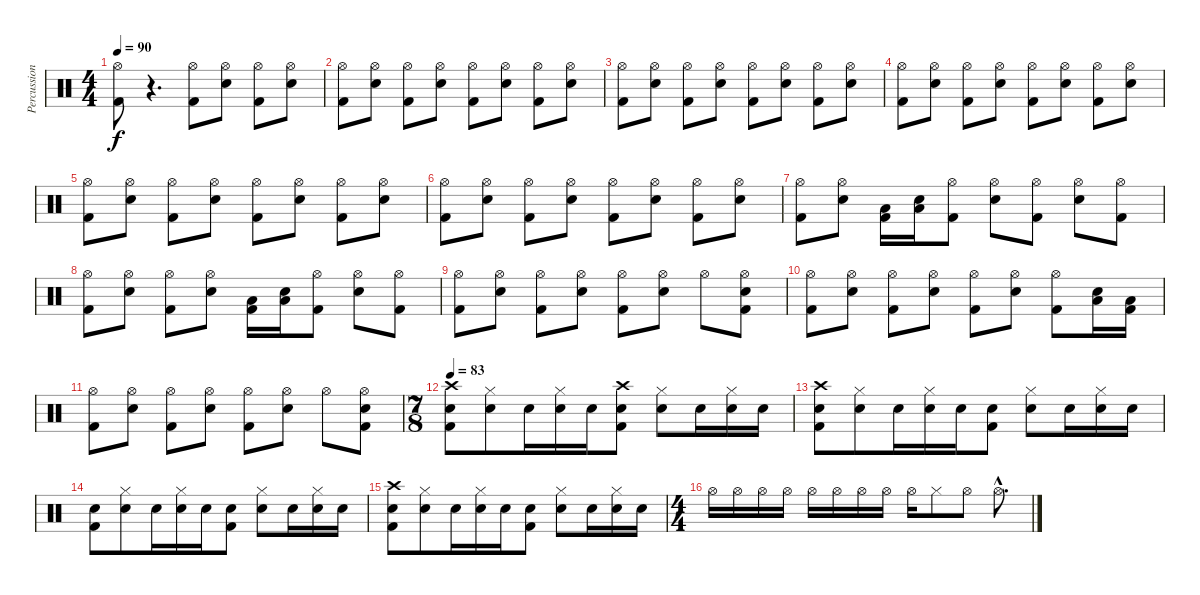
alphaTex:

\track ("Percussion" "Percussion") {instrument percussion}
\staff {score}
\articulation defaults
\ts (4 4)
\tempo 90
\clef neutral
\ks c
("Hi-Hat (open)" "Kick (hit) 2").8{dy f} r.4{d} ("Hi-Hat (open)" "Kick (hit) 2").8 ("Hi-Hat (open)" "Electric Snare (hit)").8 ("Hi-Hat (open)" "Kick (hit) 2").8 ("Hi-Hat (open)" "Electric Snare (hit)").8 |
("Hi-Hat (open)" "Kick (hit) 2").8 ("Hi-Hat (open)" "Electric Snare (hit)").8 ("Hi-Hat (open)" "Kick (hit) 2").8 ("Hi-Hat (open)" "Electric Snare (hit)").8 ("Hi-Hat (open)" "Kick (hit) 2").8 ("Hi-Hat (open)" "Electric Snare (hit)").8 ("Hi-Hat (open)" "Kick (hit) 2").8 ("Hi-Hat (open)" "Electric Snare (hit)").8 |
("Hi-Hat (open)" "Kick (hit) 2").8 ("Hi-Hat (open)" "Electric Snare (hit)").8 ("Hi-Hat (open)" "Kick (hit) 2").8 ("Hi-Hat (open)" "Electric Snare (hit)").8 ("Hi-Hat (open)" "Kick (hit) 2").8 ("Hi-Hat (open)" "Electric Snare (hit)").8 ("Hi-Hat (open)" "Kick (hit) 2").8 ("Hi-Hat (open)" "Electric Snare (hit)").8 |
("Hi-Hat (open)" "Kick (hit) 2").8 ("Hi-Hat (open)" "Electric Snare (hit)").8 ("Hi-Hat (open)" "Kick (hit) 2").8 ("Hi-Hat (open)" "Electric Snare (hit)").8 ("Hi-Hat (open)" "Kick (hit) 2").8 ("Hi-Hat (open)" "Electric Snare (hit)").8 ("Hi-Hat (open)" "Kick (hit) 2").8 ("Hi-Hat (open)" "Electric Snare (hit)").8 |
("Hi-Hat (open)" "Kick (hit) 2").8 ("Hi-Hat (open)" "Electric Snare (hit)").8 ("Hi-Hat (open)" "Kick (hit) 2").8 ("Hi-Hat (open)" "Electric Snare (hit)").8 ("Hi-Hat (open)" "Kick (hit) 2").8 ("Hi-Hat (open)" "Electric Snare (hit)").8 ("Hi-Hat (open)" "Kick (hit) 2").8 ("Hi-Hat (open)" "Electric Snare (hit)").8 |
("Hi-Hat (open)" "Kick (hit) 2").8 ("Hi-Hat (open)" "Electric Snare (hit)").8 ("Hi-Hat (open)" "Kick (hit) 2").8 ("Hi-Hat (open)" "Electric Snare (hit)").8 ("Hi-Hat (open)" "Kick (hit) 2").8 ("Hi-Hat (open)" "Electric Snare (hit)").8 ("Hi-Hat (open)" "Kick (hit) 2").8 ("Hi-Hat (open)" "Electric Snare (hit)").8 |
("Hi-Hat (open)" "Kick (hit) 2").8 ("Hi-Hat (open)" "Electric Snare (hit)").8 ("Low Floor Tom (hit)" "Kick (hit) 2").16 ("Electric Snare (hit)" "Low Floor Tom (hit)").16 ("Hi-Hat (open)" "Kick (hit) 2").8 ("Hi-Hat (open)" "Electric Snare (hit)").8 ("Hi-Hat (open)" "Kick (hit) 2").8 ("Hi-Hat (open)" "Electric Snare (hit)").8 ("Hi-Hat (open)" "Kick (hit) 2").8 |
("Hi-Hat (open)" "Kick (hit) 2").8 ("Hi-Hat (open)" "Electric Snare (hit)").8 ("Hi-Hat (open)" "Kick (hit) 2").8 ("Hi-Hat (open)" "Electric Snare (hit)").8 ("Low Floor Tom (hit)" "Kick (hit) 2").16 ("Electric Snare (hit)" "Low Floor Tom (hit)").16 ("Hi-Hat (open)" "Kick (hit) 2").8 ("Hi-Hat (open)" "Electric Snare (hit)").8 ("Hi-Hat (open)" "Kick (hit) 2").8 |
("Hi-Hat (open)" "Kick (hit) 2").8 ("Hi-Hat (open)" "Electric Snare (hit)").8 ("Hi-Hat (open)" "Kick (hit) 2").8 ("Hi-Hat (open)" "Electric Snare (hit)").8 ("Hi-Hat (open)" "Kick (hit) 2").8 ("Hi-Hat (open)" "Electric Snare (hit)").8 "Hi-Hat (open)".8 ("Hi-Hat (open)" "Electric Snare (hit)" "Kick (hit) 2").8 |
("Hi-Hat (open)" "Kick (hit) 2").8 ("Hi-Hat (open)" "Electric Snare (hit)").8 ("Hi-Hat (open)" "Kick (hit) 2").8 ("Hi-Hat (open)" "Electric Snare (hit)").8 ("Hi-Hat (open)" "Kick (hit) 2").8 ("Hi-Hat (open)" "Electric Snare (hit)").8 ("Hi-Hat (open)" "Kick (hit) 2").8 ("Low Floor Tom (hit)" "Electric Snare (hit)").16 ("Low Floor Tom (hit)" "Kick (hit) 2").16 |
("Hi-Hat (open)" "Kick (hit) 2").8 ("Hi-Hat (open)" "Electric Snare (hit)").8 ("Hi-Hat (open)" "Kick (hit) 2").8 ("Hi-Hat (open)" "Electric Snare (hit)").8 ("Hi-Hat (open)" "Kick (hit) 2").8 ("Hi-Hat (open)" "Electric Snare (hit)").8 "Hi-Hat (open)".8 ("Hi-Hat (open)" "Electric Snare (hit)" "Kick (hit) 2").8 |
\ts (7 8)
\tempo 83
("Crash high (hit)" "Electric Snare (hit)" "Kick (hit) 2").8 ("Hi-Hat (closed)" "Electric Snare (hit)").8 "Electric Snare (hit)".16 ("Hi-Hat (closed)" "Electric Snare (hit)").16 "Electric Snare (hit)".16 ("Crash high (hit)" "Electric Snare (hit)" "Kick (hit) 2").8 ("Hi-Hat (closed)" "Electric Snare (hit)").8 "Electric Snare (hit)".16 ("Hi-Hat (closed)" "Electric Snare (hit)").16 "Electric Snare (hit)".16 |
("Crash high (hit)" "Electric Snare (hit)" "Kick (hit) 2").8 ("Hi-Hat (closed)" "Electric Snare (hit)").8 "Electric Snare (hit)".16 ("Hi-Hat (closed)" "Electric Snare (hit)").16 "Electric Snare (hit)".16 ("Electric Snare (hit)" "Kick (hit) 2").8 ("Hi-Hat (closed)" "Electric Snare (hit)").8 "Electric Snare (hit)".16 ("Hi-Hat (closed)" "Electric Snare (hit)").16 "Electric Snare (hit)".16 |
("Electric Snare (hit)" "Kick (hit) 2").8 ("Hi-Hat (closed)" "Electric Snare (hit)").8 "Electric Snare (hit)".16 ("Hi-Hat (closed)" "Electric Snare (hit)").16 "Electric Snare (hit)".16 ("Electric Snare (hit)" "Kick (hit) 2").8 ("Hi-Hat (closed)" "Electric Snare (hit)").8 "Electric Snare (hit)".16 ("Hi-Hat (closed)" "Electric Snare (hit)").16 "Electric Snare (hit)".16 |
("Crash high (hit)" "Electric Snare (hit)" "Kick (hit) 2").8 ("Hi-Hat (closed)" "Electric Snare (hit)").8 "Electric Snare (hit)".16 ("Hi-Hat (closed)" "Electric Snare (hit)").16 "Electric Snare (hit)".16 ("Electric Snare (hit)" "Kick (hit) 2").8 ("Hi-Hat (closed)" "Electric Snare (hit)").8 "Electric Snare (hit)".16 ("Hi-Hat (closed)" "Electric Snare (hit)").16 "Electric Snare (hit)".16 |
\ts (4 4)
"Hi-Hat (open)".16 "Hi-Hat (open)".16 "Hi-Hat (open)".16 "Hi-Hat (open)".16 "Hi-Hat (open)".16 "Hi-Hat (open)".16 "Hi-Hat (open)".16 "Hi-Hat (open)".16 "Hi-Hat (open)".16 "Hi-Hat (closed)".8 "Hi-Hat (open)".8 "Hi-Hat (open)"{hac}.8{d}
